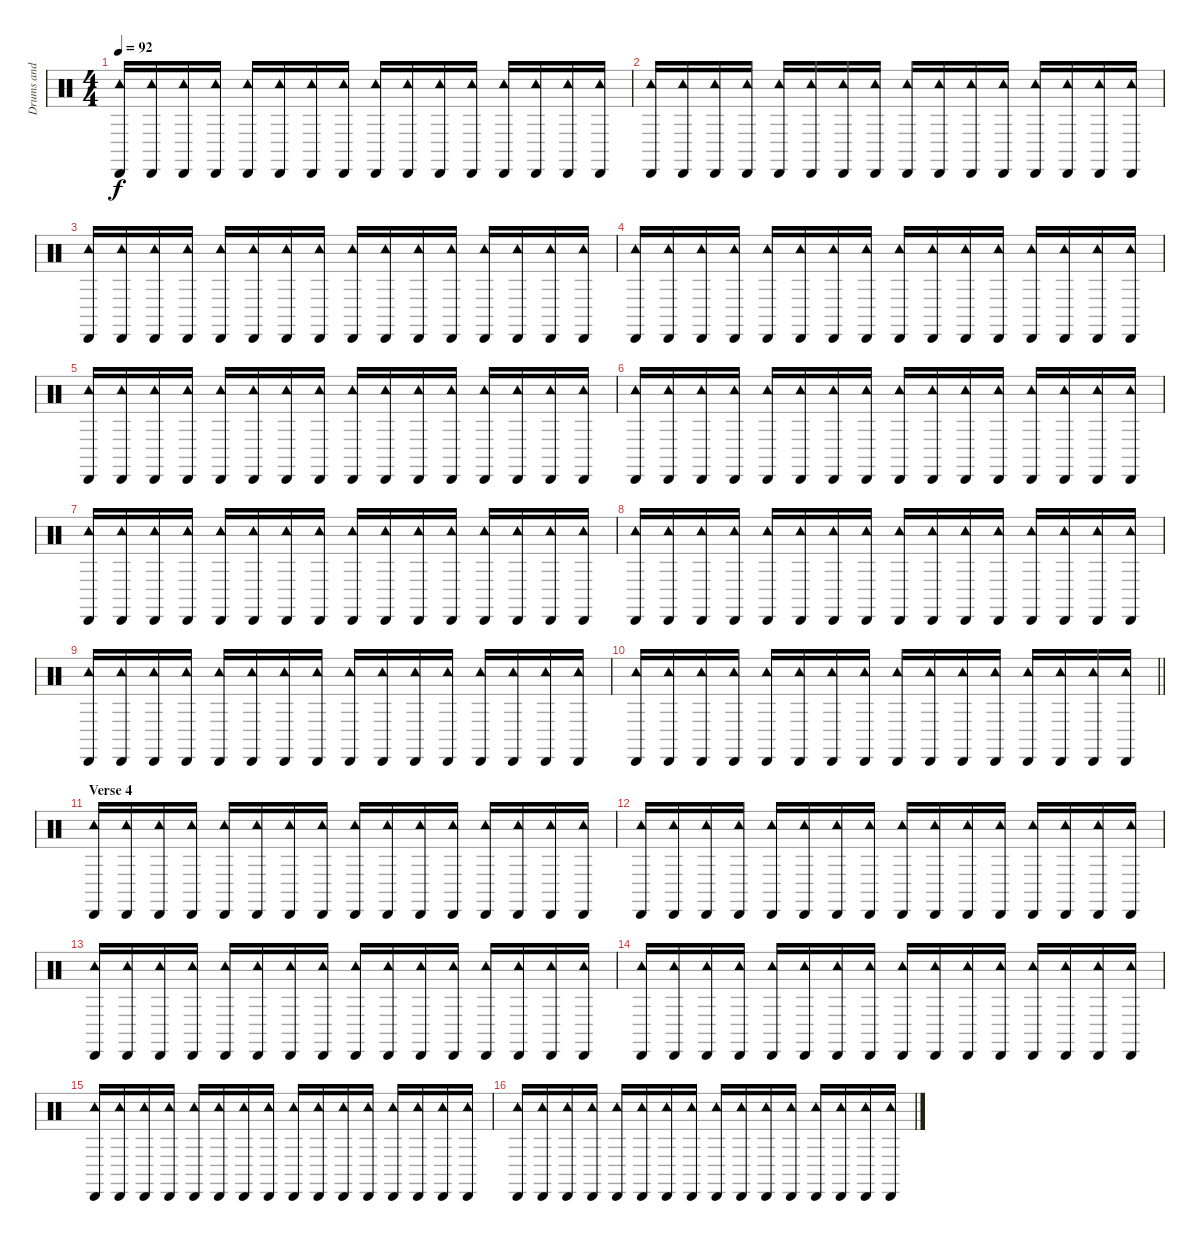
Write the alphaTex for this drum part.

\track ("Drums and Percussions" "Drums and ") {instrument percussion}
\staff {score}
\articulation defaults
\ts (4 4)
\tempo 92
\clef neutral
\ks c
("Cabasa (hit)" "Tambourine (hit)").16{dy f} ("Cabasa (hit)" "Tambourine (hit)").16 ("Cabasa (hit)" "Tambourine (hit)").16 ("Cabasa (hit)" "Tambourine (hit)").16 ("Cabasa (hit)" "Tambourine (hit)").16 ("Cabasa (hit)" "Tambourine (hit)").16 ("Cabasa (hit)" "Tambourine (hit)").16 ("Cabasa (hit)" "Tambourine (hit)").16 ("Cabasa (hit)" "Tambourine (hit)").16 ("Cabasa (hit)" "Tambourine (hit)").16 ("Cabasa (hit)" "Tambourine (hit)").16 ("Cabasa (hit)" "Tambourine (hit)").16 ("Cabasa (hit)" "Tambourine (hit)").16 ("Cabasa (hit)" "Tambourine (hit)").16 ("Cabasa (hit)" "Tambourine (hit)").16 ("Cabasa (hit)" "Tambourine (hit)").16 |
("Cabasa (hit)" "Tambourine (hit)").16 ("Cabasa (hit)" "Tambourine (hit)").16 ("Cabasa (hit)" "Tambourine (hit)").16 ("Cabasa (hit)" "Tambourine (hit)").16 ("Cabasa (hit)" "Tambourine (hit)").16 ("Cabasa (hit)" "Tambourine (hit)").16 ("Cabasa (hit)" "Tambourine (hit)").16 ("Cabasa (hit)" "Tambourine (hit)").16 ("Cabasa (hit)" "Tambourine (hit)").16 ("Cabasa (hit)" "Tambourine (hit)").16 ("Cabasa (hit)" "Tambourine (hit)").16 ("Cabasa (hit)" "Tambourine (hit)").16 ("Cabasa (hit)" "Tambourine (hit)").16 ("Cabasa (hit)" "Tambourine (hit)").16 ("Cabasa (hit)" "Tambourine (hit)").16 ("Cabasa (hit)" "Tambourine (hit)").16 |
("Cabasa (hit)" "Tambourine (hit)").16 ("Cabasa (hit)" "Tambourine (hit)").16 ("Cabasa (hit)" "Tambourine (hit)").16 ("Cabasa (hit)" "Tambourine (hit)").16 ("Cabasa (hit)" "Tambourine (hit)").16 ("Cabasa (hit)" "Tambourine (hit)").16 ("Cabasa (hit)" "Tambourine (hit)").16 ("Cabasa (hit)" "Tambourine (hit)").16 ("Cabasa (hit)" "Tambourine (hit)").16 ("Cabasa (hit)" "Tambourine (hit)").16 ("Cabasa (hit)" "Tambourine (hit)").16 ("Cabasa (hit)" "Tambourine (hit)").16 ("Cabasa (hit)" "Tambourine (hit)").16 ("Cabasa (hit)" "Tambourine (hit)").16 ("Cabasa (hit)" "Tambourine (hit)").16 ("Cabasa (hit)" "Tambourine (hit)").16 |
("Cabasa (hit)" "Tambourine (hit)").16 ("Cabasa (hit)" "Tambourine (hit)").16 ("Cabasa (hit)" "Tambourine (hit)").16 ("Cabasa (hit)" "Tambourine (hit)").16 ("Cabasa (hit)" "Tambourine (hit)").16 ("Cabasa (hit)" "Tambourine (hit)").16 ("Cabasa (hit)" "Tambourine (hit)").16 ("Cabasa (hit)" "Tambourine (hit)").16 ("Cabasa (hit)" "Tambourine (hit)").16 ("Cabasa (hit)" "Tambourine (hit)").16 ("Cabasa (hit)" "Tambourine (hit)").16 ("Cabasa (hit)" "Tambourine (hit)").16 ("Cabasa (hit)" "Tambourine (hit)").16 ("Cabasa (hit)" "Tambourine (hit)").16 ("Cabasa (hit)" "Tambourine (hit)").16 ("Cabasa (hit)" "Tambourine (hit)").16 |
("Cabasa (hit)" "Tambourine (hit)").16 ("Cabasa (hit)" "Tambourine (hit)").16 ("Cabasa (hit)" "Tambourine (hit)").16 ("Cabasa (hit)" "Tambourine (hit)").16 ("Cabasa (hit)" "Tambourine (hit)").16 ("Cabasa (hit)" "Tambourine (hit)").16 ("Cabasa (hit)" "Tambourine (hit)").16 ("Cabasa (hit)" "Tambourine (hit)").16 ("Cabasa (hit)" "Tambourine (hit)").16 ("Cabasa (hit)" "Tambourine (hit)").16 ("Cabasa (hit)" "Tambourine (hit)").16 ("Cabasa (hit)" "Tambourine (hit)").16 ("Cabasa (hit)" "Tambourine (hit)").16 ("Cabasa (hit)" "Tambourine (hit)").16 ("Cabasa (hit)" "Tambourine (hit)").16 ("Cabasa (hit)" "Tambourine (hit)").16 |
("Cabasa (hit)" "Tambourine (hit)").16 ("Cabasa (hit)" "Tambourine (hit)").16 ("Cabasa (hit)" "Tambourine (hit)").16 ("Cabasa (hit)" "Tambourine (hit)").16 ("Cabasa (hit)" "Tambourine (hit)").16 ("Cabasa (hit)" "Tambourine (hit)").16 ("Cabasa (hit)" "Tambourine (hit)").16 ("Cabasa (hit)" "Tambourine (hit)").16 ("Cabasa (hit)" "Tambourine (hit)").16 ("Cabasa (hit)" "Tambourine (hit)").16 ("Cabasa (hit)" "Tambourine (hit)").16 ("Cabasa (hit)" "Tambourine (hit)").16 ("Cabasa (hit)" "Tambourine (hit)").16 ("Cabasa (hit)" "Tambourine (hit)").16 ("Cabasa (hit)" "Tambourine (hit)").16 ("Cabasa (hit)" "Tambourine (hit)").16 |
("Cabasa (hit)" "Tambourine (hit)").16 ("Cabasa (hit)" "Tambourine (hit)").16 ("Cabasa (hit)" "Tambourine (hit)").16 ("Cabasa (hit)" "Tambourine (hit)").16 ("Cabasa (hit)" "Tambourine (hit)").16 ("Cabasa (hit)" "Tambourine (hit)").16 ("Cabasa (hit)" "Tambourine (hit)").16 ("Cabasa (hit)" "Tambourine (hit)").16 ("Cabasa (hit)" "Tambourine (hit)").16 ("Cabasa (hit)" "Tambourine (hit)").16 ("Cabasa (hit)" "Tambourine (hit)").16 ("Cabasa (hit)" "Tambourine (hit)").16 ("Cabasa (hit)" "Tambourine (hit)").16 ("Cabasa (hit)" "Tambourine (hit)").16 ("Cabasa (hit)" "Tambourine (hit)").16 ("Cabasa (hit)" "Tambourine (hit)").16 |
("Cabasa (hit)" "Tambourine (hit)").16 ("Cabasa (hit)" "Tambourine (hit)").16 ("Cabasa (hit)" "Tambourine (hit)").16 ("Cabasa (hit)" "Tambourine (hit)").16 ("Cabasa (hit)" "Tambourine (hit)").16 ("Cabasa (hit)" "Tambourine (hit)").16 ("Cabasa (hit)" "Tambourine (hit)").16 ("Cabasa (hit)" "Tambourine (hit)").16 ("Cabasa (hit)" "Tambourine (hit)").16 ("Cabasa (hit)" "Tambourine (hit)").16 ("Cabasa (hit)" "Tambourine (hit)").16 ("Cabasa (hit)" "Tambourine (hit)").16 ("Cabasa (hit)" "Tambourine (hit)").16 ("Cabasa (hit)" "Tambourine (hit)").16 ("Cabasa (hit)" "Tambourine (hit)").16 ("Cabasa (hit)" "Tambourine (hit)").16 |
("Cabasa (hit)" "Tambourine (hit)").16 ("Cabasa (hit)" "Tambourine (hit)").16 ("Cabasa (hit)" "Tambourine (hit)").16 ("Cabasa (hit)" "Tambourine (hit)").16 ("Cabasa (hit)" "Tambourine (hit)").16 ("Cabasa (hit)" "Tambourine (hit)").16 ("Cabasa (hit)" "Tambourine (hit)").16 ("Cabasa (hit)" "Tambourine (hit)").16 ("Cabasa (hit)" "Tambourine (hit)").16 ("Cabasa (hit)" "Tambourine (hit)").16 ("Cabasa (hit)" "Tambourine (hit)").16 ("Cabasa (hit)" "Tambourine (hit)").16 ("Cabasa (hit)" "Tambourine (hit)").16 ("Cabasa (hit)" "Tambourine (hit)").16 ("Cabasa (hit)" "Tambourine (hit)").16 ("Cabasa (hit)" "Tambourine (hit)").16 |
\barLineRight lightlight
("Cabasa (hit)" "Tambourine (hit)").16 ("Cabasa (hit)" "Tambourine (hit)").16 ("Cabasa (hit)" "Tambourine (hit)").16 ("Cabasa (hit)" "Tambourine (hit)").16 ("Cabasa (hit)" "Tambourine (hit)").16 ("Cabasa (hit)" "Tambourine (hit)").16 ("Cabasa (hit)" "Tambourine (hit)").16 ("Cabasa (hit)" "Tambourine (hit)").16 ("Cabasa (hit)" "Tambourine (hit)").16 ("Cabasa (hit)" "Tambourine (hit)").16 ("Cabasa (hit)" "Tambourine (hit)").16 ("Cabasa (hit)" "Tambourine (hit)").16 ("Cabasa (hit)" "Tambourine (hit)").16 ("Cabasa (hit)" "Tambourine (hit)").16 ("Cabasa (hit)" "Tambourine (hit)").16 ("Cabasa (hit)" "Tambourine (hit)").16 |
\section ("" "Verse 4")
("Cabasa (hit)" "Tambourine (hit)").16 ("Cabasa (hit)" "Tambourine (hit)").16 ("Cabasa (hit)" "Tambourine (hit)").16 ("Cabasa (hit)" "Tambourine (hit)").16 ("Cabasa (hit)" "Tambourine (hit)").16 ("Cabasa (hit)" "Tambourine (hit)").16 ("Cabasa (hit)" "Tambourine (hit)").16 ("Cabasa (hit)" "Tambourine (hit)").16 ("Cabasa (hit)" "Tambourine (hit)").16 ("Cabasa (hit)" "Tambourine (hit)").16 ("Cabasa (hit)" "Tambourine (hit)").16 ("Cabasa (hit)" "Tambourine (hit)").16 ("Cabasa (hit)" "Tambourine (hit)").16 ("Cabasa (hit)" "Tambourine (hit)").16 ("Cabasa (hit)" "Tambourine (hit)").16 ("Cabasa (hit)" "Tambourine (hit)").16 |
("Cabasa (hit)" "Tambourine (hit)").16 ("Cabasa (hit)" "Tambourine (hit)").16 ("Cabasa (hit)" "Tambourine (hit)").16 ("Cabasa (hit)" "Tambourine (hit)").16 ("Cabasa (hit)" "Tambourine (hit)").16 ("Cabasa (hit)" "Tambourine (hit)").16 ("Cabasa (hit)" "Tambourine (hit)").16 ("Cabasa (hit)" "Tambourine (hit)").16 ("Cabasa (hit)" "Tambourine (hit)").16 ("Cabasa (hit)" "Tambourine (hit)").16 ("Cabasa (hit)" "Tambourine (hit)").16 ("Cabasa (hit)" "Tambourine (hit)").16 ("Cabasa (hit)" "Tambourine (hit)").16 ("Cabasa (hit)" "Tambourine (hit)").16 ("Cabasa (hit)" "Tambourine (hit)").16 ("Cabasa (hit)" "Tambourine (hit)").16 |
("Cabasa (hit)" "Tambourine (hit)").16 ("Cabasa (hit)" "Tambourine (hit)").16 ("Cabasa (hit)" "Tambourine (hit)").16 ("Cabasa (hit)" "Tambourine (hit)").16 ("Cabasa (hit)" "Tambourine (hit)").16 ("Cabasa (hit)" "Tambourine (hit)").16 ("Cabasa (hit)" "Tambourine (hit)").16 ("Cabasa (hit)" "Tambourine (hit)").16 ("Cabasa (hit)" "Tambourine (hit)").16 ("Cabasa (hit)" "Tambourine (hit)").16 ("Cabasa (hit)" "Tambourine (hit)").16 ("Cabasa (hit)" "Tambourine (hit)").16 ("Cabasa (hit)" "Tambourine (hit)").16 ("Cabasa (hit)" "Tambourine (hit)").16 ("Cabasa (hit)" "Tambourine (hit)").16 ("Cabasa (hit)" "Tambourine (hit)").16 |
("Cabasa (hit)" "Tambourine (hit)").16 ("Cabasa (hit)" "Tambourine (hit)").16 ("Cabasa (hit)" "Tambourine (hit)").16 ("Cabasa (hit)" "Tambourine (hit)").16 ("Cabasa (hit)" "Tambourine (hit)").16 ("Cabasa (hit)" "Tambourine (hit)").16 ("Cabasa (hit)" "Tambourine (hit)").16 ("Cabasa (hit)" "Tambourine (hit)").16 ("Cabasa (hit)" "Tambourine (hit)").16 ("Cabasa (hit)" "Tambourine (hit)").16 ("Cabasa (hit)" "Tambourine (hit)").16 ("Cabasa (hit)" "Tambourine (hit)").16 ("Cabasa (hit)" "Tambourine (hit)").16 ("Cabasa (hit)" "Tambourine (hit)").16 ("Cabasa (hit)" "Tambourine (hit)").16 ("Cabasa (hit)" "Tambourine (hit)").16 |
("Cabasa (hit)" "Tambourine (hit)").16 ("Cabasa (hit)" "Tambourine (hit)").16 ("Cabasa (hit)" "Tambourine (hit)").16 ("Cabasa (hit)" "Tambourine (hit)").16 ("Cabasa (hit)" "Tambourine (hit)").16 ("Cabasa (hit)" "Tambourine (hit)").16 ("Cabasa (hit)" "Tambourine (hit)").16 ("Cabasa (hit)" "Tambourine (hit)").16 ("Cabasa (hit)" "Tambourine (hit)").16 ("Cabasa (hit)" "Tambourine (hit)").16 ("Cabasa (hit)" "Tambourine (hit)").16 ("Cabasa (hit)" "Tambourine (hit)").16 ("Cabasa (hit)" "Tambourine (hit)").16 ("Cabasa (hit)" "Tambourine (hit)").16 ("Cabasa (hit)" "Tambourine (hit)").16 ("Cabasa (hit)" "Tambourine (hit)").16 |
("Cabasa (hit)" "Tambourine (hit)").16 ("Cabasa (hit)" "Tambourine (hit)").16 ("Cabasa (hit)" "Tambourine (hit)").16 ("Cabasa (hit)" "Tambourine (hit)").16 ("Cabasa (hit)" "Tambourine (hit)").16 ("Cabasa (hit)" "Tambourine (hit)").16 ("Cabasa (hit)" "Tambourine (hit)").16 ("Cabasa (hit)" "Tambourine (hit)").16 ("Cabasa (hit)" "Tambourine (hit)").16 ("Cabasa (hit)" "Tambourine (hit)").16 ("Cabasa (hit)" "Tambourine (hit)").16 ("Cabasa (hit)" "Tambourine (hit)").16 ("Cabasa (hit)" "Tambourine (hit)").16 ("Cabasa (hit)" "Tambourine (hit)").16 ("Cabasa (hit)" "Tambourine (hit)").16 ("Cabasa (hit)" "Tambourine (hit)").16
